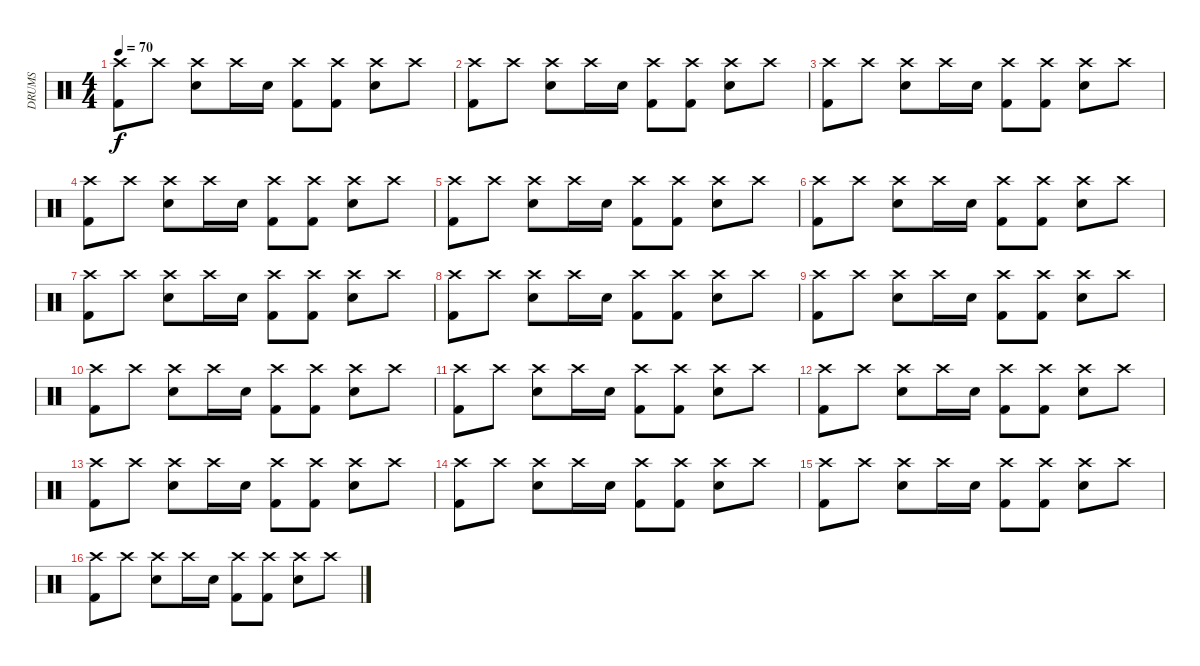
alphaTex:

\track ("DRUMS" "DRUMS") {instrument percussion}
\staff {score}
\articulation defaults
\ts (4 4)
\tempo 70
\clef neutral
\ks c
("Crash high (hit)" "Kick (hit) 2").8{dy f} "Crash high (hit)".8 ("Crash high (hit)" "Snare (hit) 2").8 "Crash high (hit)".16 "Snare (hit) 2".16 ("Crash high (hit)" "Kick (hit) 2").8 ("Crash high (hit)" "Kick (hit) 2").8 ("Crash high (hit)" "Snare (hit) 2").8 "Crash high (hit)".8 |
("Crash high (hit)" "Kick (hit) 2").8 "Crash high (hit)".8 ("Crash high (hit)" "Snare (hit) 2").8 "Crash high (hit)".16 "Snare (hit) 2".16 ("Crash high (hit)" "Kick (hit) 2").8 ("Crash high (hit)" "Kick (hit) 2").8 ("Crash high (hit)" "Snare (hit) 2").8 "Crash high (hit)".8 |
("Crash high (hit)" "Kick (hit) 2").8 "Crash high (hit)".8 ("Crash high (hit)" "Snare (hit) 2").8 "Crash high (hit)".16 "Snare (hit) 2".16 ("Crash high (hit)" "Kick (hit) 2").8 ("Crash high (hit)" "Kick (hit) 2").8 ("Crash high (hit)" "Snare (hit) 2").8 "Crash high (hit)".8 |
("Crash high (hit)" "Kick (hit) 2").8 "Crash high (hit)".8 ("Crash high (hit)" "Snare (hit) 2").8 "Crash high (hit)".16 "Snare (hit) 2".16 ("Crash high (hit)" "Kick (hit) 2").8 ("Crash high (hit)" "Kick (hit) 2").8 ("Crash high (hit)" "Snare (hit) 2").8 "Crash high (hit)".8 |
("Crash high (hit)" "Kick (hit) 2").8 "Crash high (hit)".8 ("Crash high (hit)" "Snare (hit) 2").8 "Crash high (hit)".16 "Snare (hit) 2".16 ("Crash high (hit)" "Kick (hit) 2").8 ("Crash high (hit)" "Kick (hit) 2").8 ("Crash high (hit)" "Snare (hit) 2").8 "Crash high (hit)".8 |
("Crash high (hit)" "Kick (hit) 2").8 "Crash high (hit)".8 ("Crash high (hit)" "Snare (hit) 2").8 "Crash high (hit)".16 "Snare (hit) 2".16 ("Crash high (hit)" "Kick (hit) 2").8 ("Crash high (hit)" "Kick (hit) 2").8 ("Crash high (hit)" "Snare (hit) 2").8 "Crash high (hit)".8 |
("Crash high (hit)" "Kick (hit) 2").8 "Crash high (hit)".8 ("Crash high (hit)" "Snare (hit) 2").8 "Crash high (hit)".16 "Snare (hit) 2".16 ("Crash high (hit)" "Kick (hit) 2").8 ("Crash high (hit)" "Kick (hit) 2").8 ("Crash high (hit)" "Snare (hit) 2").8 "Crash high (hit)".8 |
("Crash high (hit)" "Kick (hit) 2").8 "Crash high (hit)".8 ("Crash high (hit)" "Snare (hit) 2").8 "Crash high (hit)".16 "Snare (hit) 2".16 ("Crash high (hit)" "Kick (hit) 2").8 ("Crash high (hit)" "Kick (hit) 2").8 ("Crash high (hit)" "Snare (hit) 2").8 "Crash high (hit)".8 |
("Crash high (hit)" "Kick (hit) 2").8 "Crash high (hit)".8 ("Crash high (hit)" "Snare (hit) 2").8 "Crash high (hit)".16 "Snare (hit) 2".16 ("Crash high (hit)" "Kick (hit) 2").8 ("Crash high (hit)" "Kick (hit) 2").8 ("Crash high (hit)" "Snare (hit) 2").8 "Crash high (hit)".8 |
("Crash high (hit)" "Kick (hit) 2").8 "Crash high (hit)".8 ("Crash high (hit)" "Snare (hit) 2").8 "Crash high (hit)".16 "Snare (hit) 2".16 ("Crash high (hit)" "Kick (hit) 2").8 ("Crash high (hit)" "Kick (hit) 2").8 ("Crash high (hit)" "Snare (hit) 2").8 "Crash high (hit)".8 |
("Crash high (hit)" "Kick (hit) 2").8 "Crash high (hit)".8 ("Crash high (hit)" "Snare (hit) 2").8 "Crash high (hit)".16 "Snare (hit) 2".16 ("Crash high (hit)" "Kick (hit) 2").8 ("Crash high (hit)" "Kick (hit) 2").8 ("Crash high (hit)" "Snare (hit) 2").8 "Crash high (hit)".8 |
("Crash high (hit)" "Kick (hit) 2").8 "Crash high (hit)".8 ("Crash high (hit)" "Snare (hit) 2").8 "Crash high (hit)".16 "Snare (hit) 2".16 ("Crash high (hit)" "Kick (hit) 2").8 ("Crash high (hit)" "Kick (hit) 2").8 ("Crash high (hit)" "Snare (hit) 2").8 "Crash high (hit)".8 |
("Crash high (hit)" "Kick (hit) 2").8 "Crash high (hit)".8 ("Crash high (hit)" "Snare (hit) 2").8 "Crash high (hit)".16 "Snare (hit) 2".16 ("Crash high (hit)" "Kick (hit) 2").8 ("Crash high (hit)" "Kick (hit) 2").8 ("Crash high (hit)" "Snare (hit) 2").8 "Crash high (hit)".8 |
("Crash high (hit)" "Kick (hit) 2").8 "Crash high (hit)".8 ("Crash high (hit)" "Snare (hit) 2").8 "Crash high (hit)".16 "Snare (hit) 2".16 ("Crash high (hit)" "Kick (hit) 2").8 ("Crash high (hit)" "Kick (hit) 2").8 ("Crash high (hit)" "Snare (hit) 2").8 "Crash high (hit)".8 |
("Crash high (hit)" "Kick (hit) 2").8 "Crash high (hit)".8 ("Crash high (hit)" "Snare (hit) 2").8 "Crash high (hit)".16 "Snare (hit) 2".16 ("Crash high (hit)" "Kick (hit) 2").8 ("Crash high (hit)" "Kick (hit) 2").8 ("Crash high (hit)" "Snare (hit) 2").8 "Crash high (hit)".8 |
("Crash high (hit)" "Kick (hit) 2").8 "Crash high (hit)".8 ("Crash high (hit)" "Snare (hit) 2").8 "Crash high (hit)".16 "Snare (hit) 2".16 ("Crash high (hit)" "Kick (hit) 2").8 ("Crash high (hit)" "Kick (hit) 2").8 ("Crash high (hit)" "Snare (hit) 2").8 "Crash high (hit)".8
